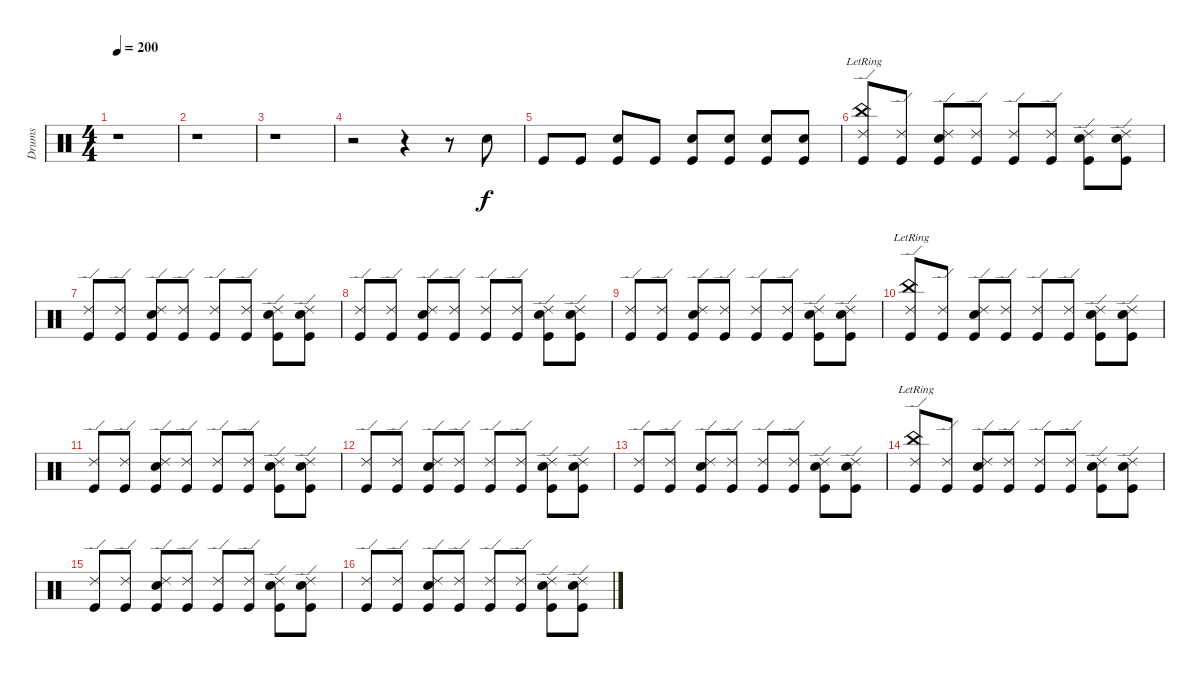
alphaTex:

\track ("Drums" "Drums") {instrument percussion}
\staff {score}
\articulation defaults
\ts (4 4)
\tempo 200
\clef neutral
\ks c
r.1{dy f} |
r.1 |
r.1 |
r.2 r.4 r.8 "Snare (hit) 2".8 |
"Kick (hit)".8 "Kick (hit)".8 ("Kick (hit)" "Snare (hit) 2").8 "Kick (hit)".8 ("Kick (hit)" "Snare (hit) 2").8 ("Kick (hit)" "Snare (hit) 2").8 ("Kick (hit)" "Snare (hit) 2").8 ("Kick (hit)" "Snare (hit) 2").8 |
("Kick (hit)" "China (hit)"{lr} "Ride (edge) 2").8 ("Kick (hit)" "Ride (edge) 2").8 ("Kick (hit)" "Snare (hit) 2" "Ride (edge) 2").8 ("Kick (hit)" "Ride (edge) 2").8 ("Kick (hit)" "Ride (edge) 2").8 ("Kick (hit)" "Ride (edge) 2").8 ("Kick (hit)" "Snare (hit) 2" "Ride (edge) 2").8 ("Kick (hit)" "Snare (hit) 2" "Ride (edge) 2").8 |
("Kick (hit)" "Ride (edge) 2").8 ("Kick (hit)" "Ride (edge) 2").8 ("Kick (hit)" "Snare (hit) 2" "Ride (edge) 2").8 ("Kick (hit)" "Ride (edge) 2").8 ("Kick (hit)" "Ride (edge) 2").8 ("Kick (hit)" "Ride (edge) 2").8 ("Kick (hit)" "Snare (hit) 2" "Ride (edge) 2").8 ("Kick (hit)" "Snare (hit) 2" "Ride (edge) 2").8 |
("Kick (hit)" "Ride (edge) 2").8 ("Kick (hit)" "Ride (edge) 2").8 ("Kick (hit)" "Snare (hit) 2" "Ride (edge) 2").8 ("Kick (hit)" "Ride (edge) 2").8 ("Kick (hit)" "Ride (edge) 2").8 ("Kick (hit)" "Ride (edge) 2").8 ("Kick (hit)" "Snare (hit) 2" "Ride (edge) 2").8 ("Kick (hit)" "Snare (hit) 2" "Ride (edge) 2").8 |
("Kick (hit)" "Ride (edge) 2").8 ("Kick (hit)" "Ride (edge) 2").8 ("Kick (hit)" "Snare (hit) 2" "Ride (edge) 2").8 ("Kick (hit)" "Ride (edge) 2").8 ("Kick (hit)" "Ride (edge) 2").8 ("Kick (hit)" "Ride (edge) 2").8 ("Kick (hit)" "Snare (hit) 2" "Ride (edge) 2").8 ("Kick (hit)" "Snare (hit) 2" "Ride (edge) 2").8 |
("Kick (hit)" "China (hit)"{lr} "Ride (edge) 2").8 ("Kick (hit)" "Ride (edge) 2").8 ("Kick (hit)" "Snare (hit) 2" "Ride (edge) 2").8 ("Kick (hit)" "Ride (edge) 2").8 ("Kick (hit)" "Ride (edge) 2").8 ("Kick (hit)" "Ride (edge) 2").8 ("Kick (hit)" "Snare (hit) 2" "Ride (edge) 2").8 ("Kick (hit)" "Snare (hit) 2" "Ride (edge) 2").8 |
("Kick (hit)" "Ride (edge) 2").8 ("Kick (hit)" "Ride (edge) 2").8 ("Kick (hit)" "Snare (hit) 2" "Ride (edge) 2").8 ("Kick (hit)" "Ride (edge) 2").8 ("Kick (hit)" "Ride (edge) 2").8 ("Kick (hit)" "Ride (edge) 2").8 ("Kick (hit)" "Snare (hit) 2" "Ride (edge) 2").8 ("Kick (hit)" "Snare (hit) 2" "Ride (edge) 2").8 |
("Kick (hit)" "Ride (edge) 2").8 ("Kick (hit)" "Ride (edge) 2").8 ("Kick (hit)" "Snare (hit) 2" "Ride (edge) 2").8 ("Kick (hit)" "Ride (edge) 2").8 ("Kick (hit)" "Ride (edge) 2").8 ("Kick (hit)" "Ride (edge) 2").8 ("Kick (hit)" "Snare (hit) 2" "Ride (edge) 2").8 ("Kick (hit)" "Snare (hit) 2" "Ride (edge) 2").8 |
("Kick (hit)" "Ride (edge) 2").8 ("Kick (hit)" "Ride (edge) 2").8 ("Kick (hit)" "Snare (hit) 2" "Ride (edge) 2").8 ("Kick (hit)" "Ride (edge) 2").8 ("Kick (hit)" "Ride (edge) 2").8 ("Kick (hit)" "Ride (edge) 2").8 ("Kick (hit)" "Snare (hit) 2" "Ride (edge) 2").8 ("Kick (hit)" "Snare (hit) 2" "Ride (edge) 2").8 |
("Kick (hit)" "China (hit)"{lr} "Ride (edge) 2").8 ("Kick (hit)" "Ride (edge) 2").8 ("Kick (hit)" "Snare (hit) 2" "Ride (edge) 2").8 ("Kick (hit)" "Ride (edge) 2").8 ("Kick (hit)" "Ride (edge) 2").8 ("Kick (hit)" "Ride (edge) 2").8 ("Kick (hit)" "Snare (hit) 2" "Ride (edge) 2").8 ("Kick (hit)" "Snare (hit) 2" "Ride (edge) 2").8 |
("Kick (hit)" "Ride (edge) 2").8 ("Kick (hit)" "Ride (edge) 2").8 ("Kick (hit)" "Snare (hit) 2" "Ride (edge) 2").8 ("Kick (hit)" "Ride (edge) 2").8 ("Kick (hit)" "Ride (edge) 2").8 ("Kick (hit)" "Ride (edge) 2").8 ("Kick (hit)" "Snare (hit) 2" "Ride (edge) 2").8 ("Kick (hit)" "Snare (hit) 2" "Ride (edge) 2").8 |
("Kick (hit)" "Ride (edge) 2").8 ("Kick (hit)" "Ride (edge) 2").8 ("Kick (hit)" "Snare (hit) 2" "Ride (edge) 2").8 ("Kick (hit)" "Ride (edge) 2").8 ("Kick (hit)" "Ride (edge) 2").8 ("Kick (hit)" "Ride (edge) 2").8 ("Kick (hit)" "Snare (hit) 2" "Ride (edge) 2").8 ("Kick (hit)" "Snare (hit) 2" "Ride (edge) 2").8
